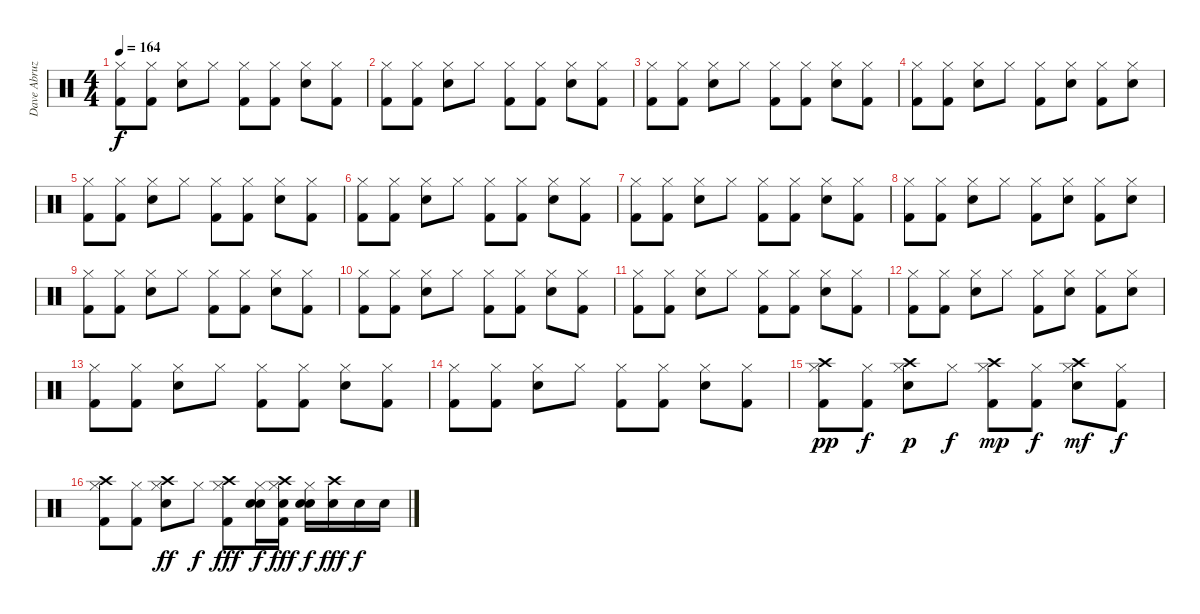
\track ("Dave Abruzzese" "Dave Abruz") {instrument percussion}
\staff {score}
\articulation defaults
\ts (4 4)
\tempo 164
\clef neutral
\ks c
("Kick (hit) 2" "Hi-Hat (closed)").8{dy f} ("Kick (hit) 2" "Hi-Hat (closed)").8 ("Snare (hit) 2" "Hi-Hat (closed)").8 "Hi-Hat (closed)".8 ("Kick (hit) 2" "Hi-Hat (closed)").8 ("Kick (hit) 2" "Hi-Hat (closed)").8 ("Snare (hit) 2" "Hi-Hat (closed)").8 ("Kick (hit) 2" "Hi-Hat (closed)").8 |
("Kick (hit) 2" "Hi-Hat (closed)").8 ("Kick (hit) 2" "Hi-Hat (closed)").8 ("Snare (hit) 2" "Hi-Hat (closed)").8 "Hi-Hat (closed)".8 ("Kick (hit) 2" "Hi-Hat (closed)").8 ("Kick (hit) 2" "Hi-Hat (closed)").8 ("Snare (hit) 2" "Hi-Hat (closed)").8 ("Kick (hit) 2" "Hi-Hat (closed)").8 |
("Kick (hit) 2" "Hi-Hat (closed)").8 ("Kick (hit) 2" "Hi-Hat (closed)").8 ("Snare (hit) 2" "Hi-Hat (closed)").8 "Hi-Hat (closed)".8 ("Kick (hit) 2" "Hi-Hat (closed)").8 ("Kick (hit) 2" "Hi-Hat (closed)").8 ("Snare (hit) 2" "Hi-Hat (closed)").8 ("Kick (hit) 2" "Hi-Hat (closed)").8 |
("Kick (hit) 2" "Hi-Hat (closed)").8 ("Kick (hit) 2" "Hi-Hat (closed)").8 ("Snare (hit) 2" "Hi-Hat (closed)").8 "Hi-Hat (closed)".8 ("Kick (hit) 2" "Hi-Hat (closed)").8 ("Snare (hit) 2" "Hi-Hat (closed)").8 ("Kick (hit) 2" "Hi-Hat (closed)").8 ("Snare (hit) 2" "Hi-Hat (closed)").8 |
("Kick (hit) 2" "Hi-Hat (closed)").8 ("Kick (hit) 2" "Hi-Hat (closed)").8 ("Snare (hit) 2" "Hi-Hat (closed)").8 "Hi-Hat (closed)".8 ("Kick (hit) 2" "Hi-Hat (closed)").8 ("Kick (hit) 2" "Hi-Hat (closed)").8 ("Snare (hit) 2" "Hi-Hat (closed)").8 ("Kick (hit) 2" "Hi-Hat (closed)").8 |
("Kick (hit) 2" "Hi-Hat (closed)").8 ("Kick (hit) 2" "Hi-Hat (closed)").8 ("Snare (hit) 2" "Hi-Hat (closed)").8 "Hi-Hat (closed)".8 ("Kick (hit) 2" "Hi-Hat (closed)").8 ("Kick (hit) 2" "Hi-Hat (closed)").8 ("Snare (hit) 2" "Hi-Hat (closed)").8 ("Kick (hit) 2" "Hi-Hat (closed)").8 |
("Kick (hit) 2" "Hi-Hat (closed)").8 ("Kick (hit) 2" "Hi-Hat (closed)").8 ("Snare (hit) 2" "Hi-Hat (closed)").8 "Hi-Hat (closed)".8 ("Kick (hit) 2" "Hi-Hat (closed)").8 ("Kick (hit) 2" "Hi-Hat (closed)").8 ("Snare (hit) 2" "Hi-Hat (closed)").8 ("Kick (hit) 2" "Hi-Hat (closed)").8 |
("Kick (hit) 2" "Hi-Hat (closed)").8 ("Kick (hit) 2" "Hi-Hat (closed)").8 ("Snare (hit) 2" "Hi-Hat (closed)").8 "Hi-Hat (closed)".8 ("Kick (hit) 2" "Hi-Hat (closed)").8 ("Snare (hit) 2" "Hi-Hat (closed)").8 ("Kick (hit) 2" "Hi-Hat (closed)").8 ("Snare (hit) 2" "Hi-Hat (closed)").8 |
("Kick (hit) 2" "Hi-Hat (closed)").8 ("Kick (hit) 2" "Hi-Hat (closed)").8 ("Snare (hit) 2" "Hi-Hat (closed)").8 "Hi-Hat (closed)".8 ("Kick (hit) 2" "Hi-Hat (closed)").8 ("Kick (hit) 2" "Hi-Hat (closed)").8 ("Snare (hit) 2" "Hi-Hat (closed)").8 ("Kick (hit) 2" "Hi-Hat (closed)").8 |
("Kick (hit) 2" "Hi-Hat (closed)").8 ("Kick (hit) 2" "Hi-Hat (closed)").8 ("Snare (hit) 2" "Hi-Hat (closed)").8 "Hi-Hat (closed)".8 ("Kick (hit) 2" "Hi-Hat (closed)").8 ("Kick (hit) 2" "Hi-Hat (closed)").8 ("Snare (hit) 2" "Hi-Hat (closed)").8 ("Kick (hit) 2" "Hi-Hat (closed)").8 |
("Kick (hit) 2" "Hi-Hat (closed)").8 ("Kick (hit) 2" "Hi-Hat (closed)").8 ("Snare (hit) 2" "Hi-Hat (closed)").8 "Hi-Hat (closed)".8 ("Kick (hit) 2" "Hi-Hat (closed)").8 ("Kick (hit) 2" "Hi-Hat (closed)").8 ("Snare (hit) 2" "Hi-Hat (closed)").8 ("Kick (hit) 2" "Hi-Hat (closed)").8 |
("Kick (hit) 2" "Hi-Hat (closed)").8 ("Kick (hit) 2" "Hi-Hat (closed)").8 ("Snare (hit) 2" "Hi-Hat (closed)").8 "Hi-Hat (closed)".8 ("Kick (hit) 2" "Hi-Hat (closed)").8 ("Snare (hit) 2" "Hi-Hat (closed)").8 ("Kick (hit) 2" "Hi-Hat (closed)").8 ("Snare (hit) 2" "Hi-Hat (closed)").8 |
("Kick (hit) 2" "Hi-Hat (closed)").8 ("Kick (hit) 2" "Hi-Hat (closed)").8 ("Snare (hit) 2" "Hi-Hat (closed)").8 "Hi-Hat (closed)".8 ("Kick (hit) 2" "Hi-Hat (closed)").8 ("Kick (hit) 2" "Hi-Hat (closed)").8 ("Snare (hit) 2" "Hi-Hat (closed)").8 ("Kick (hit) 2" "Hi-Hat (closed)").8 |
("Kick (hit) 2" "Hi-Hat (closed)").8 ("Kick (hit) 2" "Hi-Hat (closed)").8 ("Snare (hit) 2" "Hi-Hat (closed)").8 "Hi-Hat (closed)".8 ("Kick (hit) 2" "Hi-Hat (closed)").8 ("Kick (hit) 2" "Hi-Hat (closed)").8 ("Snare (hit) 2" "Hi-Hat (closed)").8 ("Kick (hit) 2" "Hi-Hat (closed)").8 |
("Crash high (hit)" "Kick (hit) 2" "Hi-Hat (closed)").8{dy pp} ("Kick (hit) 2" "Hi-Hat (closed)").8{dy f} ("Crash high (hit)" "Snare (hit) 2" "Hi-Hat (closed)").8{dy p} "Hi-Hat (closed)".8{dy f} ("Crash high (hit)" "Kick (hit) 2" "Hi-Hat (closed)").8{dy mp} ("Kick (hit) 2" "Hi-Hat (closed)").8{dy f} ("Crash high (hit)" "Snare (hit) 2" "Hi-Hat (closed)").8{dy mf} ("Kick (hit) 2" "Hi-Hat (closed)").8{dy f} |
("Crash high (hit)" "Kick (hit) 2" "Hi-Hat (closed)").8 ("Kick (hit) 2" "Hi-Hat (closed)").8 ("Crash high (hit)" "Snare (hit) 2" "Hi-Hat (closed)").8{dy ff} "Hi-Hat (closed)".8{dy f} ("Crash high (hit)" "Kick (hit) 2" "Hi-Hat (closed)").8{dy fff} ("Snare (hit) 2" "Snare (hit) 2" "Hi-Hat (closed)").16{dy f} ("Snare (hit) 2" "Crash high (hit)" "Kick (hit) 2" "Hi-Hat (closed)").16{dy fff} ("Snare (hit) 2" "Snare (hit) 2" "Hi-Hat (closed)").16{dy f} ("Snare (hit) 2" "Crash high (hit)").16{dy fff} "Snare (hit) 2".16{dy f} "Snare (hit) 2".16
